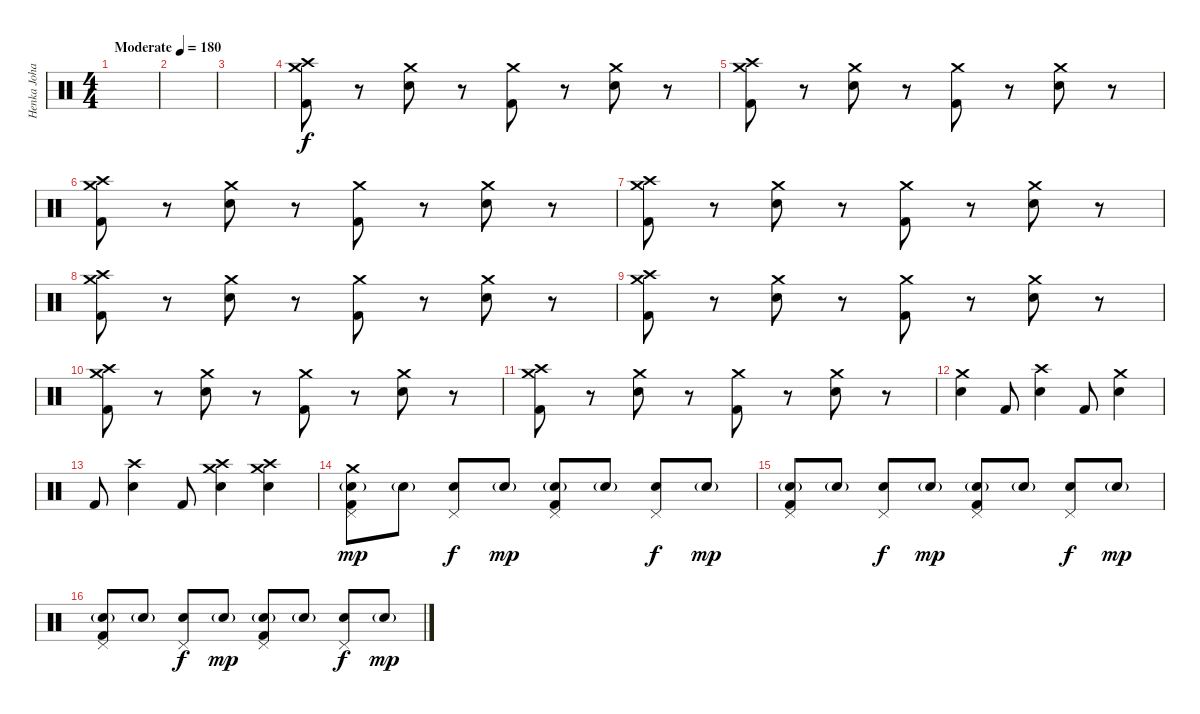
\track ("Henka Johansson" "Henka Joha") {instrument percussion}
\staff {score}
\articulation defaults
\ts (4 4)
\tempo (180 "Moderate")
\clef neutral
\ks c
|
|
|
("Crash medium (hit)" "Crash high (hit)" "Kick (hit) 2").8 r.8 ("Crash medium (hit)" "Snare (hit) 2").8 r.8 ("Crash medium (hit)" "Kick (hit) 2").8 r.8 ("Crash medium (hit)" "Snare (hit) 2").8 r.8 |
("Crash medium (hit)" "Crash high (hit)" "Kick (hit) 2").8 r.8 ("Crash medium (hit)" "Snare (hit) 2").8 r.8 ("Crash medium (hit)" "Kick (hit) 2").8 r.8 ("Crash medium (hit)" "Snare (hit) 2").8 r.8 |
("Crash medium (hit)" "Crash high (hit)" "Kick (hit) 2").8 r.8 ("Crash medium (hit)" "Snare (hit) 2").8 r.8 ("Crash medium (hit)" "Kick (hit) 2").8 r.8 ("Crash medium (hit)" "Snare (hit) 2").8 r.8 |
("Crash medium (hit)" "Crash high (hit)" "Kick (hit) 2").8 r.8 ("Crash medium (hit)" "Snare (hit) 2").8 r.8 ("Crash medium (hit)" "Kick (hit) 2").8 r.8 ("Crash medium (hit)" "Snare (hit) 2").8 r.8 |
("Crash medium (hit)" "Crash high (hit)" "Kick (hit) 2").8 r.8 ("Crash medium (hit)" "Snare (hit) 2").8 r.8 ("Crash medium (hit)" "Kick (hit) 2").8 r.8 ("Crash medium (hit)" "Snare (hit) 2").8 r.8 |
("Crash medium (hit)" "Crash high (hit)" "Kick (hit) 2").8 r.8 ("Crash medium (hit)" "Snare (hit) 2").8 r.8 ("Crash medium (hit)" "Kick (hit) 2").8 r.8 ("Crash medium (hit)" "Snare (hit) 2").8 r.8 |
("Crash medium (hit)" "Crash high (hit)" "Kick (hit) 2").8 r.8 ("Crash medium (hit)" "Snare (hit) 2").8 r.8 ("Crash medium (hit)" "Kick (hit) 2").8 r.8 ("Crash medium (hit)" "Snare (hit) 2").8 r.8 |
("Crash medium (hit)" "Crash high (hit)" "Kick (hit) 2").8 r.8 ("Crash medium (hit)" "Snare (hit) 2").8 r.8 ("Crash medium (hit)" "Kick (hit) 2").8 r.8 ("Crash medium (hit)" "Snare (hit) 2").8 r.8 |
("Crash medium (hit)" "Snare (hit) 2").4 "Kick (hit) 2".8 ("Crash high (hit)" "Snare (hit) 2").4 "Kick (hit) 2".8 ("Crash medium (hit)" "Snare (hit) 2").4 |
"Kick (hit) 2".8 ("Crash high (hit)" "Snare (hit) 2").4 "Kick (hit) 2".8 ("Crash medium (hit)" "Crash high (hit)" "Snare (hit) 2").4 ("Crash medium (hit)" "Crash high (hit)" "Snare (hit) 2").4 |
("Crash medium (hit)" "Pedal Hi-Hat (hit)" "Snare (hit) 2"{g} "Kick (hit) 2").8{dy mp} "Snare (hit) 2"{g}.8 ("Pedal Hi-Hat (hit)" "Snare (hit) 2").8{dy f} "Snare (hit) 2"{g}.8{dy mp} ("Pedal Hi-Hat (hit)" "Snare (hit) 2"{g} "Kick (hit) 2").8 "Snare (hit) 2"{g}.8 ("Pedal Hi-Hat (hit)" "Snare (hit) 2").8{dy f} "Snare (hit) 2"{g}.8{dy mp} |
("Pedal Hi-Hat (hit)" "Snare (hit) 2"{g} "Kick (hit) 2").8 "Snare (hit) 2"{g}.8 ("Pedal Hi-Hat (hit)" "Snare (hit) 2").8{dy f} "Snare (hit) 2"{g}.8{dy mp} ("Pedal Hi-Hat (hit)" "Snare (hit) 2"{g} "Kick (hit) 2").8 "Snare (hit) 2"{g}.8 ("Pedal Hi-Hat (hit)" "Snare (hit) 2").8{dy f} "Snare (hit) 2"{g}.8{dy mp} |
("Pedal Hi-Hat (hit)" "Snare (hit) 2"{g} "Kick (hit) 2").8 "Snare (hit) 2"{g}.8 ("Pedal Hi-Hat (hit)" "Snare (hit) 2").8{dy f} "Snare (hit) 2"{g}.8{dy mp} ("Pedal Hi-Hat (hit)" "Snare (hit) 2"{g} "Kick (hit) 2").8 "Snare (hit) 2"{g}.8 ("Pedal Hi-Hat (hit)" "Snare (hit) 2").8{dy f} "Snare (hit) 2"{g}.8{dy mp}
